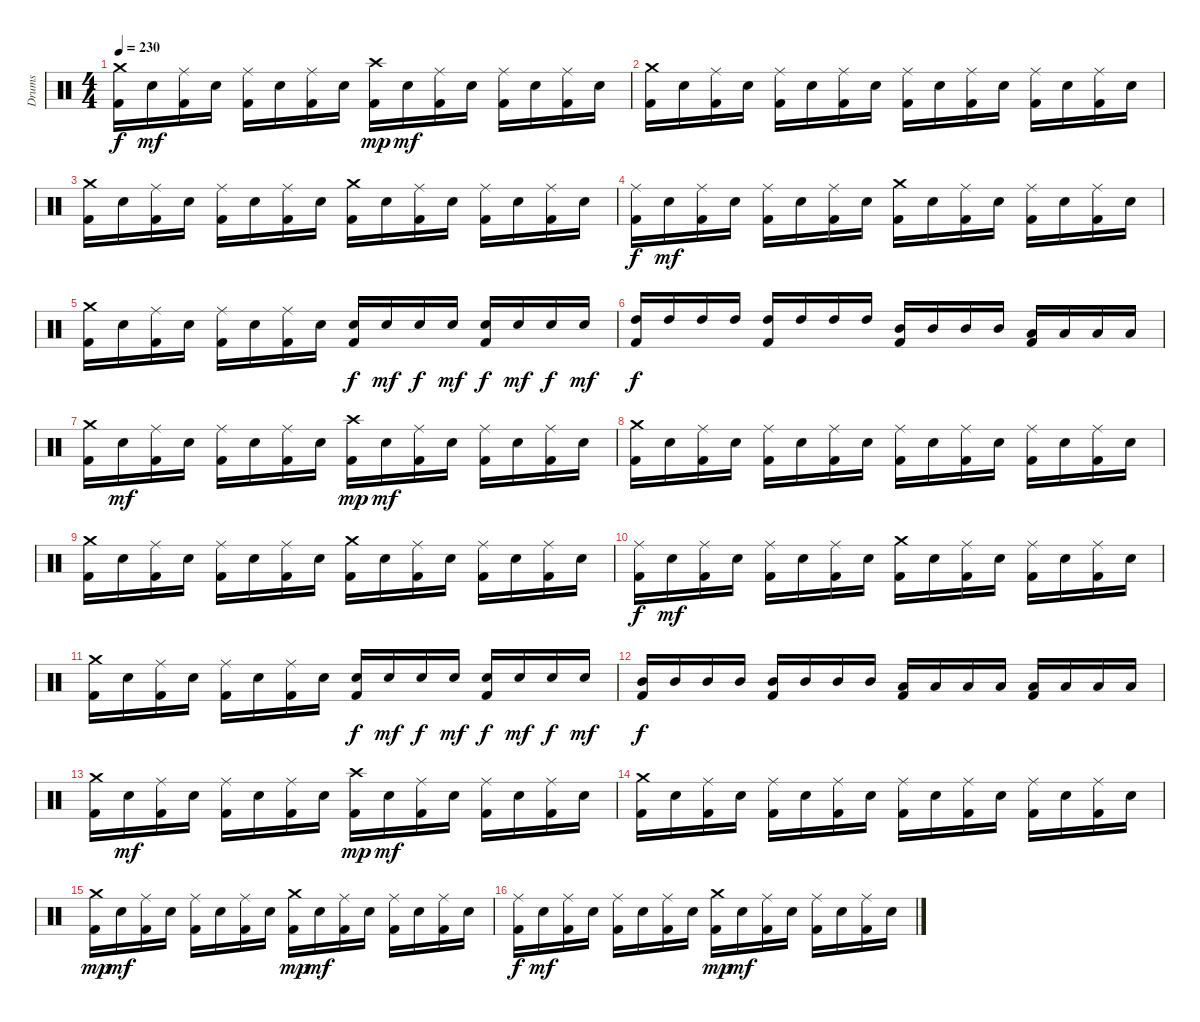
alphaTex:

\track ("Drums" "Drums") {instrument percussion}
\staff {score}
\articulation defaults
\ts (4 4)
\tempo 230
\clef neutral
\ks c
("Crash medium (hit)" "Kick (hit) 2").16{dy f} "Electric Snare (hit)".16{dy mf} ("Ride (middle)" "Kick (hit) 2").16 "Electric Snare (hit)".16 ("Ride (middle)" "Kick (hit) 2").16 "Electric Snare (hit)".16 ("Ride (middle)" "Kick (hit) 2").16 "Electric Snare (hit)".16 ("Crash high (hit)" "Kick (hit) 2").16{dy mp} "Electric Snare (hit)".16{dy mf} ("Ride (middle)" "Kick (hit) 2").16 "Electric Snare (hit)".16 ("Ride (middle)" "Kick (hit) 2").16 "Electric Snare (hit)".16 ("Ride (middle)" "Kick (hit) 2").16 "Electric Snare (hit)".16 |
("Crash medium (hit)" "Kick (hit) 2").16 "Electric Snare (hit)".16 ("Ride (middle)" "Kick (hit) 2").16 "Electric Snare (hit)".16 ("Ride (middle)" "Kick (hit) 2").16 "Electric Snare (hit)".16 ("Ride (middle)" "Kick (hit) 2").16 "Electric Snare (hit)".16 ("Ride (middle)" "Kick (hit) 2").16 "Electric Snare (hit)".16 ("Ride (middle)" "Kick (hit) 2").16 "Electric Snare (hit)".16 ("Ride (middle)" "Kick (hit) 2").16 "Electric Snare (hit)".16 ("Ride (middle)" "Kick (hit) 2").16 "Electric Snare (hit)".16 |
("Crash medium (hit)" "Kick (hit) 2").16 "Electric Snare (hit)".16 ("Ride (middle)" "Kick (hit) 2").16 "Electric Snare (hit)".16 ("Ride (middle)" "Kick (hit) 2").16 "Electric Snare (hit)".16 ("Ride (middle)" "Kick (hit) 2").16 "Electric Snare (hit)".16 ("Crash medium (hit)" "Kick (hit) 2").16 "Electric Snare (hit)".16 ("Ride (middle)" "Kick (hit) 2").16 "Electric Snare (hit)".16 ("Ride (middle)" "Kick (hit) 2").16 "Electric Snare (hit)".16 ("Ride (middle)" "Kick (hit) 2").16 "Electric Snare (hit)".16 |
("Ride (middle)" "Kick (hit) 2").16{dy f} "Electric Snare (hit)".16{dy mf} ("Ride (middle)" "Kick (hit) 2").16 "Electric Snare (hit)".16 ("Ride (middle)" "Kick (hit) 2").16 "Electric Snare (hit)".16 ("Ride (middle)" "Kick (hit) 2").16 "Electric Snare (hit)".16 ("Crash medium (hit)" "Kick (hit) 2").16 "Electric Snare (hit)".16 ("Ride (middle)" "Kick (hit) 2").16 "Electric Snare (hit)".16 ("Ride (middle)" "Kick (hit) 2").16 "Electric Snare (hit)".16 ("Ride (middle)" "Kick (hit) 2").16 "Electric Snare (hit)".16 |
("Crash medium (hit)" "Kick (hit) 2").16 "Electric Snare (hit)".16 ("Ride (middle)" "Kick (hit) 2").16 "Electric Snare (hit)".16 ("Ride (middle)" "Kick (hit) 2").16 "Electric Snare (hit)".16 ("Ride (middle)" "Kick (hit) 2").16 "Electric Snare (hit)".16 ("Electric Snare (hit)" "Kick (hit) 2").16{dy f} "Electric Snare (hit)".16{dy mf} "Electric Snare (hit)".16{dy f} "Electric Snare (hit)".16{dy mf} ("Electric Snare (hit)" "Kick (hit) 2").16{dy f} "Electric Snare (hit)".16{dy mf} "Electric Snare (hit)".16{dy f} "Electric Snare (hit)".16{dy mf} |
("High Tom (hit)" "Kick (hit) 2").16{dy f} "High Tom (hit)".16 "High Tom (hit)".16 "High Tom (hit)".16 ("High Tom (hit)" "Kick (hit) 2").16 "High Tom (hit)".16 "High Tom (hit)".16 "High Tom (hit)".16 ("Mid Tom (hit)" "Kick (hit) 2").16 "Mid Tom (hit)".16 "Mid Tom (hit)".16 "Mid Tom (hit)".16 ("Low Tom (hit)" "Kick (hit) 2").16 "Low Tom (hit)".16 "Low Tom (hit)".16 "Low Tom (hit)".16 |
("Crash medium (hit)" "Kick (hit) 2").16 "Electric Snare (hit)".16{dy mf} ("Ride (middle)" "Kick (hit) 2").16 "Electric Snare (hit)".16 ("Ride (middle)" "Kick (hit) 2").16 "Electric Snare (hit)".16 ("Ride (middle)" "Kick (hit) 2").16 "Electric Snare (hit)".16 ("Crash high (hit)" "Kick (hit) 2").16{dy mp} "Electric Snare (hit)".16{dy mf} ("Ride (middle)" "Kick (hit) 2").16 "Electric Snare (hit)".16 ("Ride (middle)" "Kick (hit) 2").16 "Electric Snare (hit)".16 ("Ride (middle)" "Kick (hit) 2").16 "Electric Snare (hit)".16 |
("Crash medium (hit)" "Kick (hit) 2").16 "Electric Snare (hit)".16 ("Ride (middle)" "Kick (hit) 2").16 "Electric Snare (hit)".16 ("Ride (middle)" "Kick (hit) 2").16 "Electric Snare (hit)".16 ("Ride (middle)" "Kick (hit) 2").16 "Electric Snare (hit)".16 ("Ride (middle)" "Kick (hit) 2").16 "Electric Snare (hit)".16 ("Ride (middle)" "Kick (hit) 2").16 "Electric Snare (hit)".16 ("Ride (middle)" "Kick (hit) 2").16 "Electric Snare (hit)".16 ("Ride (middle)" "Kick (hit) 2").16 "Electric Snare (hit)".16 |
("Crash medium (hit)" "Kick (hit) 2").16 "Electric Snare (hit)".16 ("Ride (middle)" "Kick (hit) 2").16 "Electric Snare (hit)".16 ("Ride (middle)" "Kick (hit) 2").16 "Electric Snare (hit)".16 ("Ride (middle)" "Kick (hit) 2").16 "Electric Snare (hit)".16 ("Crash medium (hit)" "Kick (hit) 2").16 "Electric Snare (hit)".16 ("Ride (middle)" "Kick (hit) 2").16 "Electric Snare (hit)".16 ("Ride (middle)" "Kick (hit) 2").16 "Electric Snare (hit)".16 ("Ride (middle)" "Kick (hit) 2").16 "Electric Snare (hit)".16 |
("Ride (middle)" "Kick (hit) 2").16{dy f} "Electric Snare (hit)".16{dy mf} ("Ride (middle)" "Kick (hit) 2").16 "Electric Snare (hit)".16 ("Ride (middle)" "Kick (hit) 2").16 "Electric Snare (hit)".16 ("Ride (middle)" "Kick (hit) 2").16 "Electric Snare (hit)".16 ("Crash medium (hit)" "Kick (hit) 2").16 "Electric Snare (hit)".16 ("Ride (middle)" "Kick (hit) 2").16 "Electric Snare (hit)".16 ("Ride (middle)" "Kick (hit) 2").16 "Electric Snare (hit)".16 ("Ride (middle)" "Kick (hit) 2").16 "Electric Snare (hit)".16 |
("Crash medium (hit)" "Kick (hit) 2").16 "Electric Snare (hit)".16 ("Ride (middle)" "Kick (hit) 2").16 "Electric Snare (hit)".16 ("Ride (middle)" "Kick (hit) 2").16 "Electric Snare (hit)".16 ("Ride (middle)" "Kick (hit) 2").16 "Electric Snare (hit)".16 ("Electric Snare (hit)" "Kick (hit) 2").16{dy f} "Electric Snare (hit)".16{dy mf} "Electric Snare (hit)".16{dy f} "Electric Snare (hit)".16{dy mf} ("Electric Snare (hit)" "Kick (hit) 2").16{dy f} "Electric Snare (hit)".16{dy mf} "Electric Snare (hit)".16{dy f} "Electric Snare (hit)".16{dy mf} |
("Mid Tom (hit)" "Kick (hit) 2").16{dy f} "Mid Tom (hit)".16 "Mid Tom (hit)".16 "Mid Tom (hit)".16 ("Mid Tom (hit)" "Kick (hit) 2").16 "Mid Tom (hit)".16 "Mid Tom (hit)".16 "Mid Tom (hit)".16 ("Low Tom (hit)" "Kick (hit) 2").16 "Low Tom (hit)".16 "Low Tom (hit)".16 "Low Tom (hit)".16 ("Low Tom (hit)" "Kick (hit) 2").16 "Low Tom (hit)".16 "Low Tom (hit)".16 "Low Tom (hit)".16 |
("Crash medium (hit)" "Kick (hit) 2").16 "Electric Snare (hit)".16{dy mf} ("Ride (middle)" "Kick (hit) 2").16 "Electric Snare (hit)".16 ("Ride (middle)" "Kick (hit) 2").16 "Electric Snare (hit)".16 ("Ride (middle)" "Kick (hit) 2").16 "Electric Snare (hit)".16 ("Crash high (hit)" "Kick (hit) 2").16{dy mp} "Electric Snare (hit)".16{dy mf} ("Ride (middle)" "Kick (hit) 2").16 "Electric Snare (hit)".16 ("Ride (middle)" "Kick (hit) 2").16 "Electric Snare (hit)".16 ("Ride (middle)" "Kick (hit) 2").16 "Electric Snare (hit)".16 |
("Crash medium (hit)" "Kick (hit) 2").16 "Electric Snare (hit)".16 ("Ride (middle)" "Kick (hit) 2").16 "Electric Snare (hit)".16 ("Ride (middle)" "Kick (hit) 2").16 "Electric Snare (hit)".16 ("Ride (middle)" "Kick (hit) 2").16 "Electric Snare (hit)".16 ("Ride (middle)" "Kick (hit) 2").16 "Electric Snare (hit)".16 ("Ride (middle)" "Kick (hit) 2").16 "Electric Snare (hit)".16 ("Ride (middle)" "Kick (hit) 2").16 "Electric Snare (hit)".16 ("Ride (middle)" "Kick (hit) 2").16 "Electric Snare (hit)".16 |
("Crash medium (hit)" "Kick (hit) 2").16{dy mp} "Electric Snare (hit)".16{dy mf} ("Ride (middle)" "Kick (hit) 2").16 "Electric Snare (hit)".16 ("Ride (middle)" "Kick (hit) 2").16 "Electric Snare (hit)".16 ("Ride (middle)" "Kick (hit) 2").16 "Electric Snare (hit)".16 ("Crash medium (hit)" "Kick (hit) 2").16{dy mp} "Electric Snare (hit)".16{dy mf} ("Ride (middle)" "Kick (hit) 2").16 "Electric Snare (hit)".16 ("Ride (middle)" "Kick (hit) 2").16 "Electric Snare (hit)".16 ("Ride (middle)" "Kick (hit) 2").16 "Electric Snare (hit)".16 |
("Ride (middle)" "Kick (hit) 2").16{dy f} "Electric Snare (hit)".16{dy mf} ("Ride (middle)" "Kick (hit) 2").16 "Electric Snare (hit)".16 ("Ride (middle)" "Kick (hit) 2").16 "Electric Snare (hit)".16 ("Ride (middle)" "Kick (hit) 2").16 "Electric Snare (hit)".16 ("Crash medium (hit)" "Kick (hit) 2").16{dy mp} "Electric Snare (hit)".16{dy mf} ("Ride (middle)" "Kick (hit) 2").16 "Electric Snare (hit)".16 ("Ride (middle)" "Kick (hit) 2").16 "Electric Snare (hit)".16 ("Ride (middle)" "Kick (hit) 2").16 "Electric Snare (hit)".16
